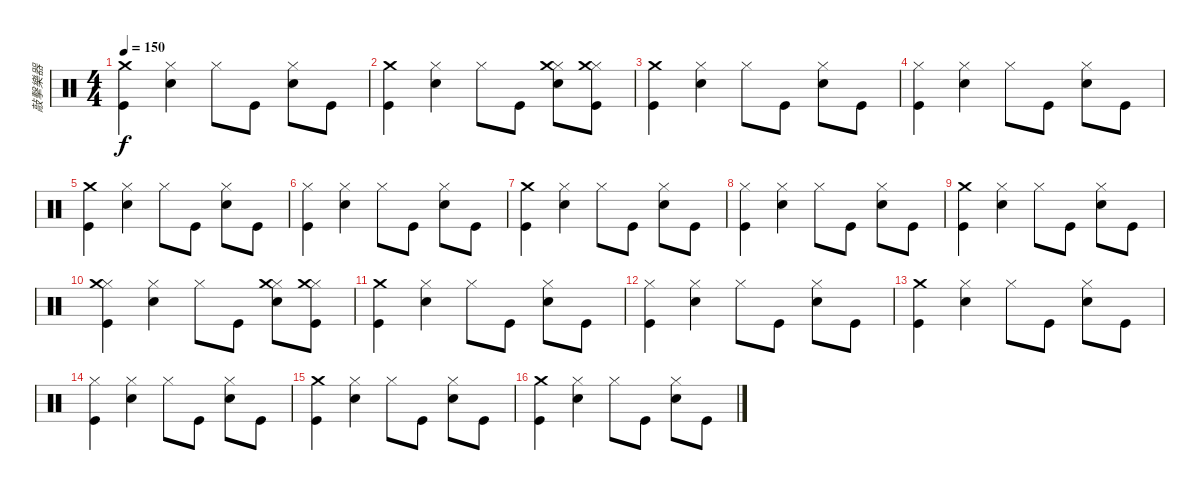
\track ("敲擊樂器" "敲擊樂器") {instrument percussion}
\staff {score}
\articulation defaults
\ts (4 4)
\tempo 150
\clef neutral
\ks c
("Kick (hit)" "Crash medium (hit)").4{dy f} ("Snare (hit) 2" "Hi-Hat (closed)").4 "Hi-Hat (closed)".8 "Kick (hit)".8 ("Snare (hit) 2" "Hi-Hat (closed)").8 "Kick (hit)".8 |
("Kick (hit)" "Crash medium (hit)").4 ("Snare (hit) 2" "Hi-Hat (closed)").4 "Hi-Hat (closed)".8 "Kick (hit)".8 ("Snare (hit) 2" "Hi-Hat (closed)" "Crash medium (hit)").8 ("Kick (hit)" "Hi-Hat (closed)" "Crash medium (hit)").8 |
("Kick (hit)" "Crash medium (hit)").4 ("Snare (hit) 2" "Hi-Hat (closed)").4 "Hi-Hat (closed)".8 "Kick (hit)".8 ("Snare (hit) 2" "Hi-Hat (closed)").8 "Kick (hit)".8 |
("Kick (hit)" "Hi-Hat (closed)").4 ("Snare (hit) 2" "Hi-Hat (closed)").4 "Hi-Hat (closed)".8 "Kick (hit)".8 ("Snare (hit) 2" "Hi-Hat (closed)").8 "Kick (hit)".8 |
("Kick (hit)" "Crash medium (hit)").4 ("Snare (hit) 2" "Hi-Hat (closed)").4 "Hi-Hat (closed)".8 "Kick (hit)".8 ("Snare (hit) 2" "Hi-Hat (closed)").8 "Kick (hit)".8 |
("Kick (hit)" "Hi-Hat (closed)").4 ("Snare (hit) 2" "Hi-Hat (closed)").4 "Hi-Hat (closed)".8 "Kick (hit)".8 ("Snare (hit) 2" "Hi-Hat (closed)").8 "Kick (hit)".8 |
("Kick (hit)" "Crash medium (hit)").4 ("Snare (hit) 2" "Hi-Hat (closed)").4 "Hi-Hat (closed)".8 "Kick (hit)".8 ("Snare (hit) 2" "Hi-Hat (closed)").8 "Kick (hit)".8 |
("Kick (hit)" "Hi-Hat (closed)").4 ("Snare (hit) 2" "Hi-Hat (closed)").4 "Hi-Hat (closed)".8 "Kick (hit)".8 ("Snare (hit) 2" "Hi-Hat (closed)").8 "Kick (hit)".8 |
("Kick (hit)" "Crash medium (hit)").4 ("Snare (hit) 2" "Hi-Hat (closed)").4 "Hi-Hat (closed)".8 "Kick (hit)".8 ("Snare (hit) 2" "Hi-Hat (closed)").8 "Kick (hit)".8 |
("Kick (hit)" "Hi-Hat (closed)" "Crash medium (hit)").4 ("Snare (hit) 2" "Hi-Hat (closed)").4 "Hi-Hat (closed)".8 "Kick (hit)".8 ("Snare (hit) 2" "Hi-Hat (closed)" "Crash medium (hit)").8 ("Kick (hit)" "Hi-Hat (closed)" "Crash medium (hit)").8 |
("Kick (hit)" "Crash medium (hit)").4 ("Snare (hit) 2" "Hi-Hat (closed)").4 "Hi-Hat (closed)".8 "Kick (hit)".8 ("Snare (hit) 2" "Hi-Hat (closed)").8 "Kick (hit)".8 |
("Kick (hit)" "Hi-Hat (closed)").4 ("Snare (hit) 2" "Hi-Hat (closed)").4 "Hi-Hat (closed)".8 "Kick (hit)".8 ("Snare (hit) 2" "Hi-Hat (closed)").8 "Kick (hit)".8 |
("Kick (hit)" "Crash medium (hit)").4 ("Snare (hit) 2" "Hi-Hat (closed)").4 "Hi-Hat (closed)".8 "Kick (hit)".8 ("Snare (hit) 2" "Hi-Hat (closed)").8 "Kick (hit)".8 |
("Kick (hit)" "Hi-Hat (closed)").4 ("Snare (hit) 2" "Hi-Hat (closed)").4 "Hi-Hat (closed)".8 "Kick (hit)".8 ("Snare (hit) 2" "Hi-Hat (closed)").8 "Kick (hit)".8 |
("Kick (hit)" "Crash medium (hit)").4 ("Snare (hit) 2" "Hi-Hat (closed)").4 "Hi-Hat (closed)".8 "Kick (hit)".8 ("Snare (hit) 2" "Hi-Hat (closed)").8 "Kick (hit)".8 |
("Kick (hit)" "Crash medium (hit)").4 ("Snare (hit) 2" "Hi-Hat (closed)").4 "Hi-Hat (closed)".8 "Kick (hit)".8 ("Snare (hit) 2" "Hi-Hat (closed)").8 "Kick (hit)".8
